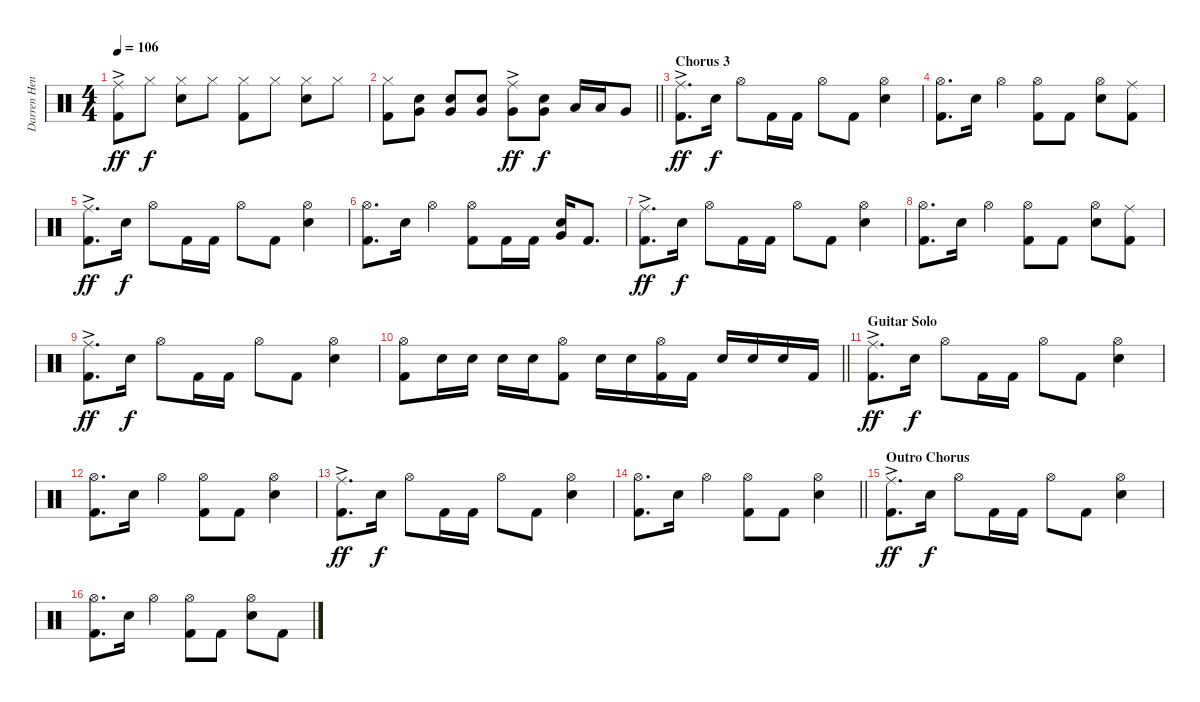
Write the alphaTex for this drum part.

\track ("Darren Henley [Drums]" "Darren Hen") {instrument percussion}
\staff {score}
\articulation defaults
\ts (4 4)
\tempo 106
\clef neutral
\ks c
("Ride (middle)"{ac} "Kick (hit) 2").8{dy ff} "Hi-Hat (closed)".8{dy f} ("Hi-Hat (closed)" "Snare (hit) 2").8 "Hi-Hat (closed)".8 ("Hi-Hat (closed)" "Kick (hit) 2").8 "Hi-Hat (closed)".8 ("Hi-Hat (closed)" "Snare (hit) 2").8 "Hi-Hat (closed)".8 |
\barLineRight lightlight
("Hi-Hat (closed)" "Kick (hit) 2").8 ("Snare (hit) 2" "Very Low Tom (hit)").8 ("Snare (hit) 2" "Very Low Tom (hit)").8 ("Snare (hit) 2" "Very Low Tom (hit)").8 ("Ride (middle)"{ac} "Very Low Tom (hit)").8{dy ff} ("Snare (hit) 2" "Very Low Tom (hit)").8{dy f} "Low Tom (hit)".16 "Low Tom (hit)".16 "Very Low Tom (hit)".8 |
\section ("" "Chorus 3")
("Ride (middle)"{ac} "Kick (hit) 2").8{d dy ff} "Snare (hit) 2".16{dy f} "Hi-Hat (open)".8 "Kick (hit) 2".16 "Kick (hit) 2".16 "Hi-Hat (open)".8 "Kick (hit) 2".8 ("Hi-Hat (open)" "Snare (hit) 2").4 |
("Hi-Hat (open)" "Kick (hit) 2").8{d} "Snare (hit) 2".16 "Hi-Hat (open)".4 ("Hi-Hat (open)" "Kick (hit) 2").8 "Kick (hit) 2".8 ("Hi-Hat (open)" "Snare (hit) 2").8 ("Ride (middle)" "Kick (hit) 2").8 |
("Ride (middle)"{ac} "Kick (hit) 2").8{d dy ff} "Snare (hit) 2".16{dy f} "Hi-Hat (open)".8 "Kick (hit) 2".16 "Kick (hit) 2".16 "Hi-Hat (open)".8 "Kick (hit) 2".8 ("Hi-Hat (open)" "Snare (hit) 2").4 |
("Hi-Hat (open)" "Kick (hit) 2").8{d} "Snare (hit) 2".16 "Hi-Hat (open)".4 ("Hi-Hat (open)" "Kick (hit) 2").8 "Kick (hit) 2".16 "Kick (hit) 2".16 ("Snare (hit) 2" "Very Low Tom (hit)").16 "Kick (hit) 2".8{d} |
("Ride (middle)"{ac} "Kick (hit) 2").8{d dy ff} "Snare (hit) 2".16{dy f} "Hi-Hat (open)".8 "Kick (hit) 2".16 "Kick (hit) 2".16 "Hi-Hat (open)".8 "Kick (hit) 2".8 ("Hi-Hat (open)" "Snare (hit) 2").4 |
("Hi-Hat (open)" "Kick (hit) 2").8{d} "Snare (hit) 2".16 "Hi-Hat (open)".4 ("Hi-Hat (open)" "Kick (hit) 2").8 "Kick (hit) 2".8 ("Hi-Hat (open)" "Snare (hit) 2").8 ("Ride (middle)" "Kick (hit) 2").8 |
("Ride (middle)"{ac} "Kick (hit) 2").8{d dy ff} "Snare (hit) 2".16{dy f} "Hi-Hat (open)".8 "Kick (hit) 2".16 "Kick (hit) 2".16 "Hi-Hat (open)".8 "Kick (hit) 2".8 ("Hi-Hat (open)" "Snare (hit) 2").4 |
\barLineRight lightlight
("Hi-Hat (open)" "Kick (hit) 2").8 "Snare (hit) 2".16 "Snare (hit) 2".16 "Snare (hit) 2".16 "Snare (hit) 2".16 ("Hi-Hat (open)" "Kick (hit) 2").8 "Snare (hit) 2".16 "Snare (hit) 2".16 ("Hi-Hat (open)" "Kick (hit) 2").16 "Kick (hit) 2".16 "Snare (hit) 2".16 "Snare (hit) 2".16 "Snare (hit) 2".16 "Kick (hit) 2".16 |
\section ("" "Guitar Solo")
("Ride (middle)"{ac} "Kick (hit) 2").8{d dy ff} "Snare (hit) 2".16{dy f} "Hi-Hat (open)".8 "Kick (hit) 2".16 "Kick (hit) 2".16 "Hi-Hat (open)".8 "Kick (hit) 2".8 ("Hi-Hat (open)" "Snare (hit) 2").4 |
("Hi-Hat (open)" "Kick (hit) 2").8{d} "Snare (hit) 2".16 "Hi-Hat (open)".4 ("Hi-Hat (open)" "Kick (hit) 2").8 "Kick (hit) 2".8 ("Hi-Hat (open)" "Snare (hit) 2").4 |
("Ride (middle)"{ac} "Kick (hit) 2").8{d dy ff} "Snare (hit) 2".16{dy f} "Hi-Hat (open)".8 "Kick (hit) 2".16 "Kick (hit) 2".16 "Hi-Hat (open)".8 "Kick (hit) 2".8 ("Hi-Hat (open)" "Snare (hit) 2").4 |
\barLineRight lightlight
("Hi-Hat (open)" "Kick (hit) 2").8{d} "Snare (hit) 2".16 "Hi-Hat (open)".4 ("Hi-Hat (open)" "Kick (hit) 2").8 "Kick (hit) 2".8 ("Hi-Hat (open)" "Snare (hit) 2").4 |
\section ("" "Outro Chorus")
("Ride (middle)"{ac} "Kick (hit) 2").8{d dy ff} "Snare (hit) 2".16{dy f} "Hi-Hat (open)".8 "Kick (hit) 2".16 "Kick (hit) 2".16 "Hi-Hat (open)".8 "Kick (hit) 2".8 ("Hi-Hat (open)" "Snare (hit) 2").4 |
("Hi-Hat (open)" "Kick (hit) 2").8{d} "Snare (hit) 2".16 "Hi-Hat (open)".4 ("Hi-Hat (open)" "Kick (hit) 2").8 "Kick (hit) 2".8 ("Hi-Hat (open)" "Snare (hit) 2").8 "Kick (hit) 2".8
